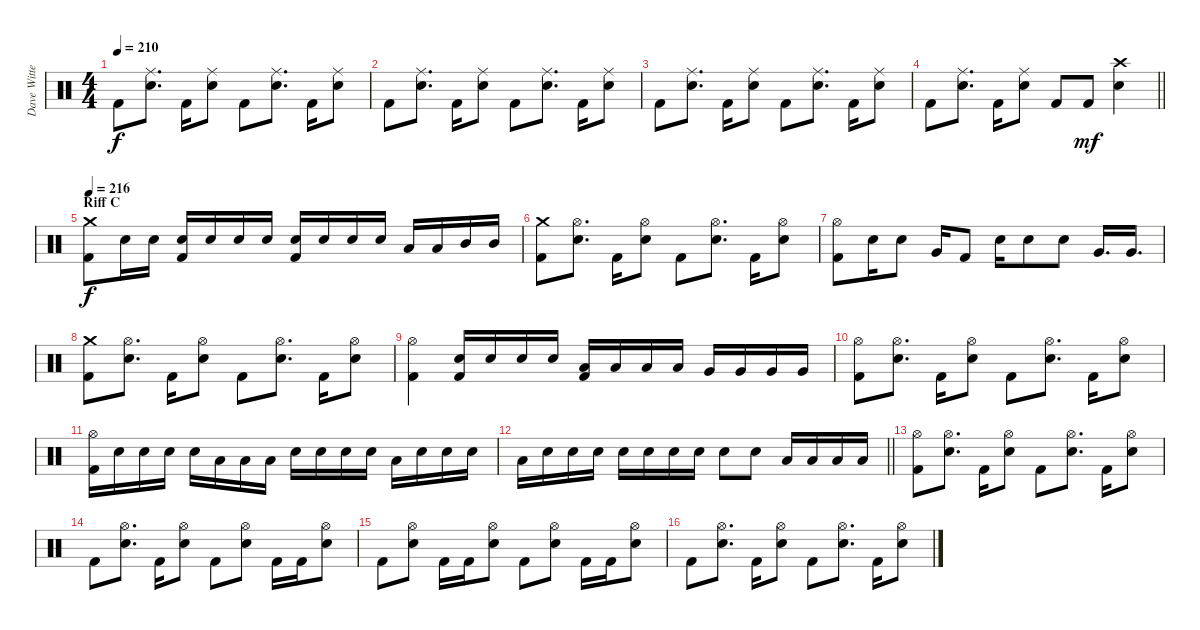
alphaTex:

\track ("Dave Witte" "Dave Witte") {instrument percussion}
\staff {score}
\articulation defaults
\ts (4 4)
\tempo 210
\clef neutral
\ks c "Kick (hit) 2".8{dy f}
("Ride (middle)" "Electric Snare (hit)").8{d} "Kick (hit) 2".16 ("Ride (middle)" "Electric Snare (hit)").8 "Kick (hit) 2".8 ("Ride (middle)" "Electric Snare (hit)").8{d} "Kick (hit) 2".16 ("Ride (middle)" "Electric Snare (hit)").8 |
"Kick (hit) 2".8 ("Ride (middle)" "Electric Snare (hit)").8{d} "Kick (hit) 2".16 ("Ride (middle)" "Electric Snare (hit)").8 "Kick (hit) 2".8 ("Ride (middle)" "Electric Snare (hit)").8{d} "Kick (hit) 2".16 ("Ride (middle)" "Electric Snare (hit)").8 |
"Kick (hit) 2".8 ("Ride (middle)" "Electric Snare (hit)").8{d} "Kick (hit) 2".16 ("Ride (middle)" "Electric Snare (hit)").8 "Kick (hit) 2".8 ("Ride (middle)" "Electric Snare (hit)").8{d} "Kick (hit) 2".16 ("Ride (middle)" "Electric Snare (hit)").8 |
\barLineRight lightlight "Kick (hit) 2".8
("Ride (middle)" "Electric Snare (hit)").8{d} "Kick (hit) 2".16 ("Ride (middle)" "Electric Snare (hit)").8 "Kick (hit) 2".8 "Kick (hit) 2".8{dy mf} ("Crash high (hit)" "Electric Snare (hit)").4 |
\section ("" "Riff C")
\tempo 216
("Crash medium (hit)" "Kick (hit) 2").8{dy f} "Electric Snare (hit)".16 "Electric Snare (hit)".16 ("Electric Snare (hit)" "Kick (hit) 2").16 "Electric Snare (hit)".16 "Electric Snare (hit)".16 "Electric Snare (hit)".16 ("Electric Snare (hit)" "Kick (hit) 2").16 "Electric Snare (hit)".16 "Electric Snare (hit)".16 "Electric Snare (hit)".16 "Low Tom (hit)".16 "Low Tom (hit)".16 "Mid Tom (hit)".16 "Mid Tom (hit)".16 |
("Crash medium (hit)" "Kick (hit) 2").8 ("Hi-Hat (open)" "Electric Snare (hit)").8{d} "Kick (hit) 2".16 ("Hi-Hat (open)" "Electric Snare (hit)").8 "Kick (hit) 2".8 ("Hi-Hat (open)" "Electric Snare (hit)").8{d} "Kick (hit) 2".16 ("Hi-Hat (open)" "Electric Snare (hit)").8 |
("Hi-Hat (open)" "Kick (hit) 2").8 "Electric Snare (hit)".16 "Electric Snare (hit)".8 "Very Low Tom (hit)".16 "Kick (hit) 2".8 "Electric Snare (hit)".16 "Electric Snare (hit)".8 "Electric Snare (hit)".8 "Very Low Tom (hit)".16{d} "Very Low Tom (hit)".16{d} |
("Crash medium (hit)" "Kick (hit) 2").8 ("Hi-Hat (open)" "Electric Snare (hit)").8{d} "Kick (hit) 2".16 ("Hi-Hat (open)" "Electric Snare (hit)").8 "Kick (hit) 2".8 ("Hi-Hat (open)" "Electric Snare (hit)").8{d} "Kick (hit) 2".16 ("Hi-Hat (open)" "Electric Snare (hit)").8 |
("Hi-Hat (open)" "Kick (hit) 2").4 ("Electric Snare (hit)" "Kick (hit) 2").16 "Electric Snare (hit)".16 "Electric Snare (hit)".16 "Electric Snare (hit)".16 ("Low Tom (hit)" "Kick (hit) 2").16 "Low Tom (hit)".16 "Low Tom (hit)".16 "Low Tom (hit)".16 "Very Low Tom (hit)".16 "Very Low Tom (hit)".16 "Very Low Tom (hit)".16 "Very Low Tom (hit)".16 |
("Hi-Hat (open)" "Kick (hit) 2").8 ("Hi-Hat (open)" "Electric Snare (hit)").8{d} "Kick (hit) 2".16 ("Hi-Hat (open)" "Electric Snare (hit)").8 "Kick (hit) 2".8 ("Hi-Hat (open)" "Electric Snare (hit)").8{d} "Kick (hit) 2".16 ("Hi-Hat (open)" "Electric Snare (hit)").8 |
("Hi-Hat (open)" "Kick (hit) 2").16 "Electric Snare (hit)".16 "Electric Snare (hit)".16 "Electric Snare (hit)".16 "Electric Snare (hit)".16 "Low Tom (hit)".16 "Low Tom (hit)".16 "Low Tom (hit)".16 "Electric Snare (hit)".16 "Electric Snare (hit)".16 "Electric Snare (hit)".16 "Electric Snare (hit)".16 "Low Tom (hit)".16 "Electric Snare (hit)".16 "Electric Snare (hit)".16 "Electric Snare (hit)".16 |
\barLineRight lightlight "Low Tom (hit)".16 "Electric Snare (hit)".16 "Electric Snare (hit)".16 "Electric Snare (hit)".16 "Electric Snare (hit)".16 "Electric Snare (hit)".16 "Electric Snare (hit)".16 "Electric Snare (hit)".16 "Electric Snare (hit)".8 "Electric Snare (hit)".8 "Low Tom (hit)".16 "Low Tom (hit)".16 "Low Tom (hit)".16 "Low Tom (hit)".16
|
("Hi-Hat (open)" "Kick (hit) 2").8 ("Hi-Hat (open)" "Electric Snare (hit)").8{d} "Kick (hit) 2".16 ("Hi-Hat (open)" "Electric Snare (hit)").8 "Kick (hit) 2".8 ("Hi-Hat (open)" "Electric Snare (hit)").8{d} "Kick (hit) 2".16 ("Hi-Hat (open)" "Electric Snare (hit)").8 |
"Kick (hit) 2".8 ("Hi-Hat (open)" "Electric Snare (hit)").8{d} "Kick (hit) 2".16 ("Hi-Hat (open)" "Electric Snare (hit)").8 "Kick (hit) 2".8 ("Hi-Hat (open)" "Electric Snare (hit)").8 "Kick (hit) 2".16 "Kick (hit) 2".16 ("Hi-Hat (open)" "Electric Snare (hit)").8 |
"Kick (hit) 2".8 ("Hi-Hat (open)" "Electric Snare (hit)").8 "Kick (hit) 2".16 "Kick (hit) 2".16 ("Hi-Hat (open)" "Electric Snare (hit)").8 "Kick (hit) 2".8 ("Hi-Hat (open)" "Electric Snare (hit)").8 "Kick (hit) 2".16 "Kick (hit) 2".16 ("Hi-Hat (open)" "Electric Snare (hit)").8 |
"Kick (hit) 2".8 ("Hi-Hat (open)" "Electric Snare (hit)").8{d} "Kick (hit) 2".16 ("Hi-Hat (open)" "Electric Snare (hit)").8 "Kick (hit) 2".8 ("Hi-Hat (open)" "Electric Snare (hit)").8{d} "Kick (hit) 2".16 ("Hi-Hat (open)" "Electric Snare (hit)").8
